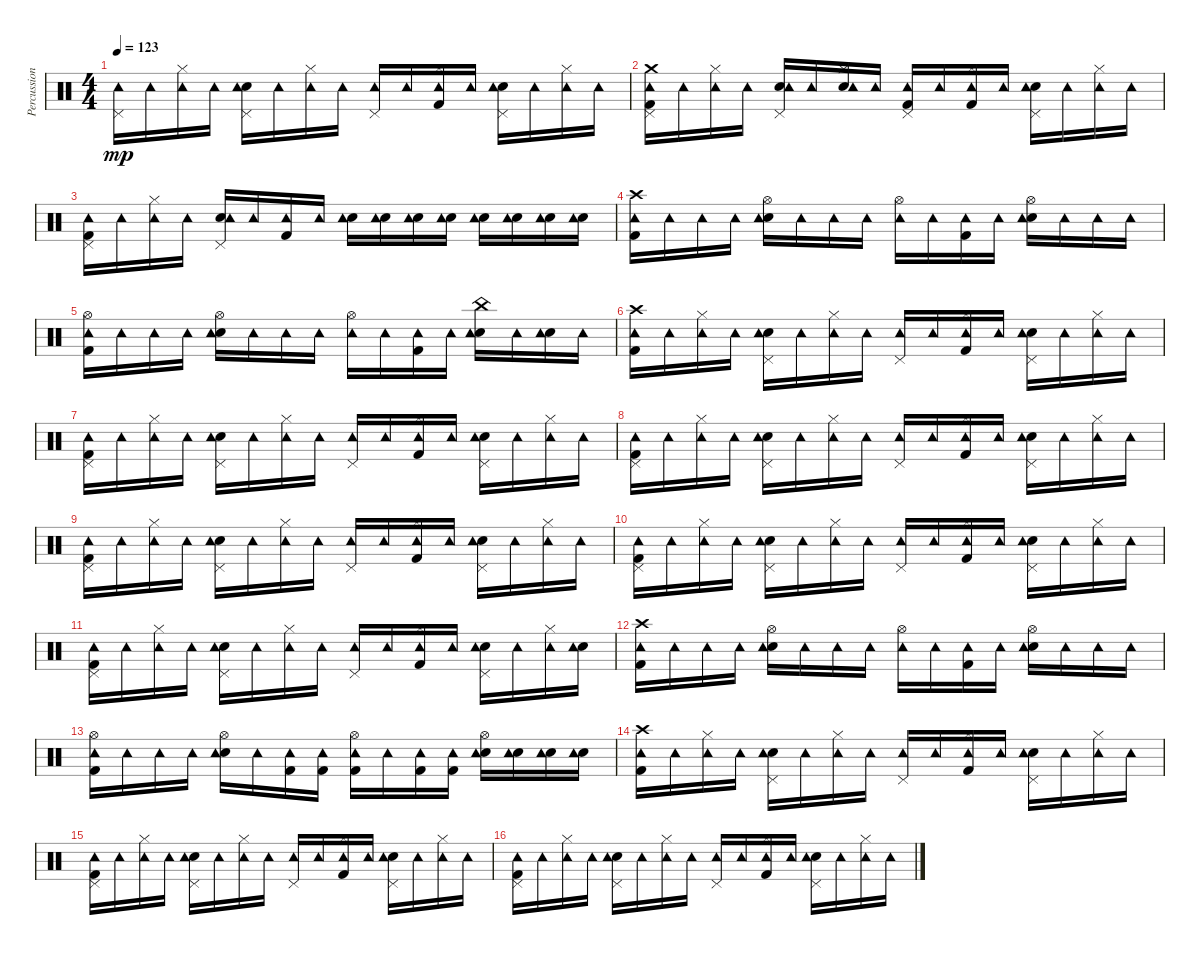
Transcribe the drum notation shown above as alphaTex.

\track ("Percussions" "Percussion") {instrument percussion}
\staff {score}
\articulation defaults
\ts (4 4)
\tempo 123
\clef neutral
\ks c
("Pedal Hi-Hat (hit)" "Tambourine (hit)").16{dy mp} "Tambourine (hit)".16 ("Hi-Hat (closed)" "Tambourine (hit)").16 "Tambourine (hit)".16 ("Snare (hit) 2" "Pedal Hi-Hat (hit)" "Tambourine (hit)").16 "Tambourine (hit)".16 ("Hi-Hat (closed)" "Tambourine (hit)").16 "Tambourine (hit)".16 ("Pedal Hi-Hat (hit)" "Tambourine (hit)").16 "Tambourine (hit)".16 ("Kick (hit) 2" "Hi-Hat (closed)" "Tambourine (hit)").16 "Tambourine (hit)".16 ("Snare (hit) 2" "Pedal Hi-Hat (hit)" "Tambourine (hit)").16 "Tambourine (hit)".16 ("Hi-Hat (closed)" "Tambourine (hit)").16 "Tambourine (hit)".16 |
("Kick (hit) 2" "Pedal Hi-Hat (hit)" "Tambourine (hit)" "Crash medium (hit)").16 "Tambourine (hit)".16 ("Hi-Hat (closed)" "Tambourine (hit)").16 "Tambourine (hit)".16 ("Snare (hit) 2" "Pedal Hi-Hat (hit)" "Tambourine (hit)").16 "Tambourine (hit)".16 ("Snare (hit) 2" "Hi-Hat (closed)" "Tambourine (hit)").16 "Tambourine (hit)".16 ("Kick (hit) 2" "Pedal Hi-Hat (hit)" "Tambourine (hit)").16 "Tambourine (hit)".16 ("Kick (hit) 2" "Hi-Hat (closed)" "Tambourine (hit)").16 "Tambourine (hit)".16 ("Snare (hit) 2" "Pedal Hi-Hat (hit)" "Tambourine (hit)").16 "Tambourine (hit)".16 ("Hi-Hat (closed)" "Tambourine (hit)").16 "Tambourine (hit)".16 |
("Kick (hit) 2" "Pedal Hi-Hat (hit)" "Tambourine (hit)").16 "Tambourine (hit)".16 ("Hi-Hat (closed)" "Tambourine (hit)").16 "Tambourine (hit)".16 ("Snare (hit) 2" "Pedal Hi-Hat (hit)" "Tambourine (hit)").16 "Tambourine (hit)".16 ("Kick (hit) 2" "Tambourine (hit)").16 "Tambourine (hit)".16 ("Snare (hit) 2" "Tambourine (hit)").16 ("Snare (hit) 2" "Tambourine (hit)").16 ("Snare (hit) 2" "Tambourine (hit)").16 ("Snare (hit) 2" "Tambourine (hit)").16 ("Snare (hit) 2" "Tambourine (hit)").16 ("Snare (hit) 2" "Tambourine (hit)").16 ("Snare (hit) 2" "Tambourine (hit)").16 ("Snare (hit) 2" "Tambourine (hit)").16 |
("Kick (hit) 2" "Crash high (hit)" "Tambourine (hit)").16 "Tambourine (hit)".16 "Tambourine (hit)".16 "Tambourine (hit)".16 ("Snare (hit) 2" "Hi-Hat (open)" "Tambourine (hit)").16 "Tambourine (hit)".16 "Tambourine (hit)".16 "Tambourine (hit)".16 ("Hi-Hat (open)" "Tambourine (hit)").16 "Tambourine (hit)".16 ("Kick (hit) 2" "Tambourine (hit)").16 "Tambourine (hit)".16 ("Snare (hit) 2" "Hi-Hat (open)" "Tambourine (hit)").16 "Tambourine (hit)".16 "Tambourine (hit)".16 "Tambourine (hit)".16 |
("Kick (hit) 2" "Hi-Hat (open)" "Tambourine (hit)").16 "Tambourine (hit)".16 "Tambourine (hit)".16 "Tambourine (hit)".16 ("Snare (hit) 2" "Hi-Hat (open)" "Tambourine (hit)").16 "Tambourine (hit)".16 "Tambourine (hit)".16 "Tambourine (hit)".16 ("Hi-Hat (open)" "Tambourine (hit)").16 "Tambourine (hit)".16 ("Kick (hit) 2" "Tambourine (hit)").16 "Tambourine (hit)".16 ("Snare (hit) 2" "China (hit)" "Tambourine (hit)").16 "Tambourine (hit)".16 ("Snare (hit) 2" "Tambourine (hit)").16 "Tambourine (hit)".16 |
("Kick (hit) 2" "Crash high (hit)" "Tambourine (hit)").16 "Tambourine (hit)".16 ("Hi-Hat (closed)" "Tambourine (hit)").16 "Tambourine (hit)".16 ("Snare (hit) 2" "Pedal Hi-Hat (hit)" "Tambourine (hit)").16 "Tambourine (hit)".16 ("Hi-Hat (closed)" "Tambourine (hit)").16 "Tambourine (hit)".16 ("Pedal Hi-Hat (hit)" "Tambourine (hit)").16 "Tambourine (hit)".16 ("Kick (hit) 2" "Hi-Hat (closed)" "Tambourine (hit)").16 "Tambourine (hit)".16 ("Snare (hit) 2" "Pedal Hi-Hat (hit)" "Tambourine (hit)").16 "Tambourine (hit)".16 ("Hi-Hat (closed)" "Tambourine (hit)").16 "Tambourine (hit)".16 |
("Kick (hit) 2" "Pedal Hi-Hat (hit)" "Tambourine (hit)").16 "Tambourine (hit)".16 ("Hi-Hat (closed)" "Tambourine (hit)").16 "Tambourine (hit)".16 ("Snare (hit) 2" "Pedal Hi-Hat (hit)" "Tambourine (hit)").16 "Tambourine (hit)".16 ("Hi-Hat (closed)" "Tambourine (hit)").16 "Tambourine (hit)".16 ("Pedal Hi-Hat (hit)" "Tambourine (hit)").16 "Tambourine (hit)".16 ("Kick (hit) 2" "Hi-Hat (closed)" "Tambourine (hit)").16 "Tambourine (hit)".16 ("Snare (hit) 2" "Pedal Hi-Hat (hit)" "Tambourine (hit)").16 "Tambourine (hit)".16 ("Hi-Hat (closed)" "Tambourine (hit)").16 "Tambourine (hit)".16 |
("Kick (hit) 2" "Pedal Hi-Hat (hit)" "Tambourine (hit)").16 "Tambourine (hit)".16 ("Hi-Hat (closed)" "Tambourine (hit)").16 "Tambourine (hit)".16 ("Snare (hit) 2" "Pedal Hi-Hat (hit)" "Tambourine (hit)").16 "Tambourine (hit)".16 ("Hi-Hat (closed)" "Tambourine (hit)").16 "Tambourine (hit)".16 ("Pedal Hi-Hat (hit)" "Tambourine (hit)").16 "Tambourine (hit)".16 ("Kick (hit) 2" "Hi-Hat (closed)" "Tambourine (hit)").16 "Tambourine (hit)".16 ("Snare (hit) 2" "Pedal Hi-Hat (hit)" "Tambourine (hit)").16 "Tambourine (hit)".16 ("Hi-Hat (closed)" "Tambourine (hit)").16 "Tambourine (hit)".16 |
("Kick (hit) 2" "Pedal Hi-Hat (hit)" "Tambourine (hit)").16 "Tambourine (hit)".16 ("Hi-Hat (closed)" "Tambourine (hit)").16 "Tambourine (hit)".16 ("Snare (hit) 2" "Pedal Hi-Hat (hit)" "Tambourine (hit)").16 "Tambourine (hit)".16 ("Hi-Hat (closed)" "Tambourine (hit)").16 "Tambourine (hit)".16 ("Pedal Hi-Hat (hit)" "Tambourine (hit)").16 "Tambourine (hit)".16 ("Kick (hit) 2" "Hi-Hat (closed)" "Tambourine (hit)").16 "Tambourine (hit)".16 ("Snare (hit) 2" "Pedal Hi-Hat (hit)" "Tambourine (hit)").16 "Tambourine (hit)".16 ("Hi-Hat (closed)" "Tambourine (hit)").16 "Tambourine (hit)".16 |
("Kick (hit) 2" "Pedal Hi-Hat (hit)" "Tambourine (hit)").16 "Tambourine (hit)".16 ("Hi-Hat (closed)" "Tambourine (hit)").16 "Tambourine (hit)".16 ("Snare (hit) 2" "Pedal Hi-Hat (hit)" "Tambourine (hit)").16 "Tambourine (hit)".16 ("Hi-Hat (closed)" "Tambourine (hit)").16 "Tambourine (hit)".16 ("Pedal Hi-Hat (hit)" "Tambourine (hit)").16 "Tambourine (hit)".16 ("Kick (hit) 2" "Hi-Hat (closed)" "Tambourine (hit)").16 "Tambourine (hit)".16 ("Snare (hit) 2" "Pedal Hi-Hat (hit)" "Tambourine (hit)").16 "Tambourine (hit)".16 ("Hi-Hat (closed)" "Tambourine (hit)").16 "Tambourine (hit)".16 |
("Kick (hit) 2" "Pedal Hi-Hat (hit)" "Tambourine (hit)").16 "Tambourine (hit)".16 ("Hi-Hat (closed)" "Tambourine (hit)").16 "Tambourine (hit)".16 ("Snare (hit) 2" "Pedal Hi-Hat (hit)" "Tambourine (hit)").16 "Tambourine (hit)".16 ("Hi-Hat (closed)" "Tambourine (hit)").16 "Tambourine (hit)".16 ("Pedal Hi-Hat (hit)" "Tambourine (hit)").16 "Tambourine (hit)".16 ("Kick (hit) 2" "Hi-Hat (closed)" "Tambourine (hit)").16 "Tambourine (hit)".16 ("Snare (hit) 2" "Pedal Hi-Hat (hit)" "Tambourine (hit)").16 "Tambourine (hit)".16 ("Hi-Hat (closed)" "Tambourine (hit)").16 ("Snare (hit) 2" "Tambourine (hit)").16 |
("Kick (hit) 2" "Crash high (hit)" "Tambourine (hit)").16 "Tambourine (hit)".16 "Tambourine (hit)".16 "Tambourine (hit)".16 ("Snare (hit) 2" "Hi-Hat (open)" "Tambourine (hit)").16 "Tambourine (hit)".16 "Tambourine (hit)".16 "Tambourine (hit)".16 ("Hi-Hat (open)" "Tambourine (hit)").16 "Tambourine (hit)".16 ("Kick (hit) 2" "Tambourine (hit)").16 "Tambourine (hit)".16 ("Snare (hit) 2" "Hi-Hat (open)" "Tambourine (hit)").16 "Tambourine (hit)".16 "Tambourine (hit)".16 "Tambourine (hit)".16 |
("Kick (hit) 2" "Hi-Hat (open)" "Tambourine (hit)").16 "Tambourine (hit)".16 "Tambourine (hit)".16 "Tambourine (hit)".16 ("Snare (hit) 2" "Hi-Hat (open)" "Tambourine (hit)").16 "Tambourine (hit)".16 ("Kick (hit) 2" "Tambourine (hit)").16 ("Kick (hit) 2" "Tambourine (hit)").16 ("Kick (hit) 2" "Hi-Hat (open)" "Tambourine (hit)").16 "Tambourine (hit)".16 ("Kick (hit) 2" "Tambourine (hit)").16 ("Kick (hit) 2" "Tambourine (hit)").16 ("Snare (hit) 2" "Hi-Hat (open)" "Tambourine (hit)").16 ("Snare (hit) 2" "Tambourine (hit)").16 ("Snare (hit) 2" "Tambourine (hit)").16 ("Snare (hit) 2" "Tambourine (hit)").16 |
("Kick (hit) 2" "Crash high (hit)" "Tambourine (hit)").16 "Tambourine (hit)".16 ("Hi-Hat (closed)" "Tambourine (hit)").16 "Tambourine (hit)".16 ("Snare (hit) 2" "Pedal Hi-Hat (hit)" "Tambourine (hit)").16 "Tambourine (hit)".16 ("Hi-Hat (closed)" "Tambourine (hit)").16 "Tambourine (hit)".16 ("Pedal Hi-Hat (hit)" "Tambourine (hit)").16 "Tambourine (hit)".16 ("Kick (hit) 2" "Hi-Hat (closed)" "Tambourine (hit)").16 "Tambourine (hit)".16 ("Snare (hit) 2" "Pedal Hi-Hat (hit)" "Tambourine (hit)").16 "Tambourine (hit)".16 ("Hi-Hat (closed)" "Tambourine (hit)").16 "Tambourine (hit)".16 |
("Kick (hit) 2" "Pedal Hi-Hat (hit)" "Tambourine (hit)").16 "Tambourine (hit)".16 ("Hi-Hat (closed)" "Tambourine (hit)").16 "Tambourine (hit)".16 ("Snare (hit) 2" "Pedal Hi-Hat (hit)" "Tambourine (hit)").16 "Tambourine (hit)".16 ("Hi-Hat (closed)" "Tambourine (hit)").16 "Tambourine (hit)".16 ("Pedal Hi-Hat (hit)" "Tambourine (hit)").16 "Tambourine (hit)".16 ("Kick (hit) 2" "Hi-Hat (closed)" "Tambourine (hit)").16 "Tambourine (hit)".16 ("Snare (hit) 2" "Pedal Hi-Hat (hit)" "Tambourine (hit)").16 "Tambourine (hit)".16 ("Hi-Hat (closed)" "Tambourine (hit)").16 "Tambourine (hit)".16 |
("Kick (hit) 2" "Pedal Hi-Hat (hit)" "Tambourine (hit)").16 "Tambourine (hit)".16 ("Hi-Hat (closed)" "Tambourine (hit)").16 "Tambourine (hit)".16 ("Snare (hit) 2" "Pedal Hi-Hat (hit)" "Tambourine (hit)").16 "Tambourine (hit)".16 ("Hi-Hat (closed)" "Tambourine (hit)").16 "Tambourine (hit)".16 ("Pedal Hi-Hat (hit)" "Tambourine (hit)").16 "Tambourine (hit)".16 ("Kick (hit) 2" "Hi-Hat (closed)" "Tambourine (hit)").16 "Tambourine (hit)".16 ("Snare (hit) 2" "Pedal Hi-Hat (hit)" "Tambourine (hit)").16 "Tambourine (hit)".16 ("Hi-Hat (closed)" "Tambourine (hit)").16 "Tambourine (hit)".16
